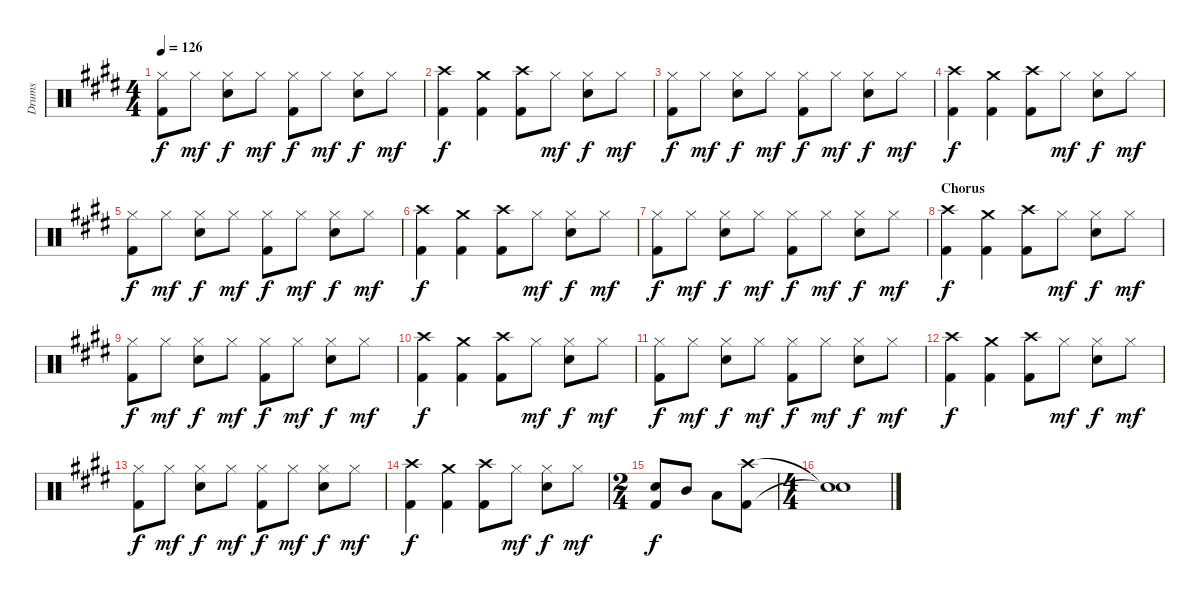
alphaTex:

\track ("Drums" "Drums") {instrument percussion}
\staff {score}
\articulation defaults
\ts (4 4)
\tempo 126
\clef neutral
\ks e
("Hi-Hat (closed)" "Kick (hit) 2").8{dy f} "Hi-Hat (closed)".8{dy mf} ("Hi-Hat (closed)" "Snare (hit) 2").8{dy f} "Hi-Hat (closed)".8{dy mf} ("Hi-Hat (closed)" "Kick (hit) 2").8{dy f} "Hi-Hat (closed)".8{dy mf} ("Hi-Hat (closed)" "Snare (hit) 2").8{dy f} "Hi-Hat (closed)".8{dy mf} |
("Crash high (hit)" "Kick (hit) 2").4{dy f} ("Crash medium (hit)" "Kick (hit) 2").4 ("Crash high (hit)" "Kick (hit) 2").8 "Hi-Hat (closed)".8{dy mf} ("Hi-Hat (closed)" "Snare (hit) 2").8{dy f} "Hi-Hat (closed)".8{dy mf} |
("Hi-Hat (closed)" "Kick (hit) 2").8{dy f} "Hi-Hat (closed)".8{dy mf} ("Hi-Hat (closed)" "Snare (hit) 2").8{dy f} "Hi-Hat (closed)".8{dy mf} ("Hi-Hat (closed)" "Kick (hit) 2").8{dy f} "Hi-Hat (closed)".8{dy mf} ("Hi-Hat (closed)" "Snare (hit) 2").8{dy f} "Hi-Hat (closed)".8{dy mf} |
("Crash high (hit)" "Kick (hit) 2").4{dy f} ("Crash medium (hit)" "Kick (hit) 2").4 ("Crash high (hit)" "Kick (hit) 2").8 "Hi-Hat (closed)".8{dy mf} ("Hi-Hat (closed)" "Snare (hit) 2").8{dy f} "Hi-Hat (closed)".8{dy mf} |
("Hi-Hat (closed)" "Kick (hit) 2").8{dy f} "Hi-Hat (closed)".8{dy mf} ("Hi-Hat (closed)" "Snare (hit) 2").8{dy f} "Hi-Hat (closed)".8{dy mf} ("Hi-Hat (closed)" "Kick (hit) 2").8{dy f} "Hi-Hat (closed)".8{dy mf} ("Hi-Hat (closed)" "Snare (hit) 2").8{dy f} "Hi-Hat (closed)".8{dy mf} |
("Crash high (hit)" "Kick (hit) 2").4{dy f} ("Crash medium (hit)" "Kick (hit) 2").4 ("Crash high (hit)" "Kick (hit) 2").8 "Hi-Hat (closed)".8{dy mf} ("Hi-Hat (closed)" "Snare (hit) 2").8{dy f} "Hi-Hat (closed)".8{dy mf} |
("Hi-Hat (closed)" "Kick (hit) 2").8{dy f} "Hi-Hat (closed)".8{dy mf} ("Hi-Hat (closed)" "Snare (hit) 2").8{dy f} "Hi-Hat (closed)".8{dy mf} ("Hi-Hat (closed)" "Kick (hit) 2").8{dy f} "Hi-Hat (closed)".8{dy mf} ("Hi-Hat (closed)" "Snare (hit) 2").8{dy f} "Hi-Hat (closed)".8{dy mf} |
\section ("" "Chorus")
("Crash high (hit)" "Kick (hit) 2").4{dy f} ("Crash medium (hit)" "Kick (hit) 2").4 ("Crash high (hit)" "Kick (hit) 2").8 "Hi-Hat (closed)".8{dy mf} ("Hi-Hat (closed)" "Snare (hit) 2").8{dy f} "Hi-Hat (closed)".8{dy mf} |
("Hi-Hat (closed)" "Kick (hit) 2").8{dy f} "Hi-Hat (closed)".8{dy mf} ("Hi-Hat (closed)" "Snare (hit) 2").8{dy f} "Hi-Hat (closed)".8{dy mf} ("Hi-Hat (closed)" "Kick (hit) 2").8{dy f} "Hi-Hat (closed)".8{dy mf} ("Hi-Hat (closed)" "Snare (hit) 2").8{dy f} "Hi-Hat (closed)".8{dy mf} |
("Crash high (hit)" "Kick (hit) 2").4{dy f} ("Crash medium (hit)" "Kick (hit) 2").4 ("Crash high (hit)" "Kick (hit) 2").8 "Hi-Hat (closed)".8{dy mf} ("Hi-Hat (closed)" "Snare (hit) 2").8{dy f} "Hi-Hat (closed)".8{dy mf} |
("Hi-Hat (closed)" "Kick (hit) 2").8{dy f} "Hi-Hat (closed)".8{dy mf} ("Hi-Hat (closed)" "Snare (hit) 2").8{dy f} "Hi-Hat (closed)".8{dy mf} ("Hi-Hat (closed)" "Kick (hit) 2").8{dy f} "Hi-Hat (closed)".8{dy mf} ("Hi-Hat (closed)" "Snare (hit) 2").8{dy f} "Hi-Hat (closed)".8{dy mf} |
("Crash high (hit)" "Kick (hit) 2").4{dy f} ("Crash medium (hit)" "Kick (hit) 2").4 ("Crash high (hit)" "Kick (hit) 2").8 "Hi-Hat (closed)".8{dy mf} ("Hi-Hat (closed)" "Snare (hit) 2").8{dy f} "Hi-Hat (closed)".8{dy mf} |
("Hi-Hat (closed)" "Kick (hit) 2").8{dy f} "Hi-Hat (closed)".8{dy mf} ("Hi-Hat (closed)" "Snare (hit) 2").8{dy f} "Hi-Hat (closed)".8{dy mf} ("Hi-Hat (closed)" "Kick (hit) 2").8{dy f} "Hi-Hat (closed)".8{dy mf} ("Hi-Hat (closed)" "Snare (hit) 2").8{dy f} "Hi-Hat (closed)".8{dy mf} |
("Crash high (hit)" "Kick (hit) 2").4{dy f} ("Crash medium (hit)" "Kick (hit) 2").4 ("Crash high (hit)" "Kick (hit) 2").8 "Hi-Hat (closed)".8{dy mf} ("Hi-Hat (closed)" "Snare (hit) 2").8{dy f} "Hi-Hat (closed)".8{dy mf} |
\ts (2 4)
("Snare (hit) 2" "Kick (hit) 2").8{dy f} "Mid Tom (hit)".8 "Low Tom (hit)".8 ("Crash high (hit)" "Kick (hit) 2").8 |
\ts (4 4)
("Snare (hit)"{t} "Snare (hit)"{t}).1
